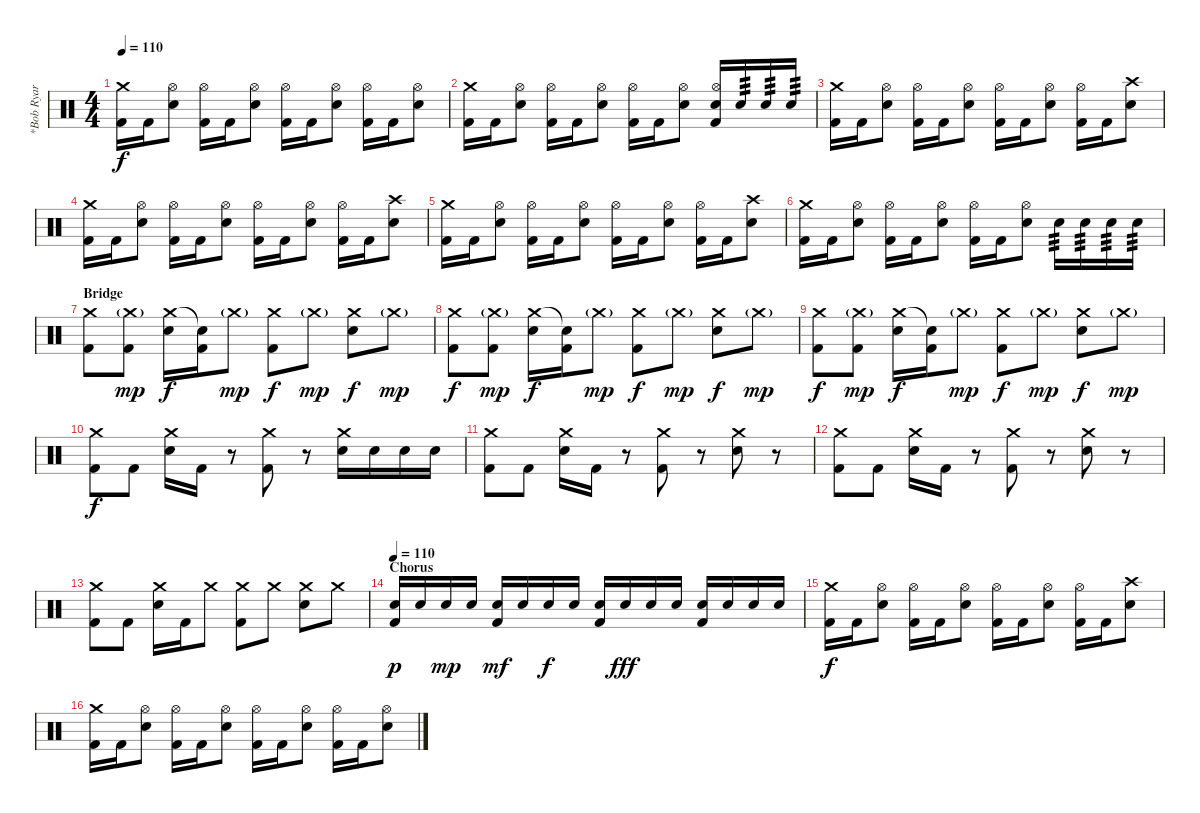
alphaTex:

\track ("*Bob Ryar (Drums)" "*Bob Ryar ") {instrument percussion}
\staff {score}
\articulation defaults
\ts (4 4)
\tempo 110
\clef neutral
\ks c
("Crash medium (hit)" "Kick (hit) 2").16{dy f} "Kick (hit) 2".16 ("Hi-Hat (open)" "Electric Snare (hit)").8 ("Hi-Hat (open)" "Kick (hit) 2").16 "Kick (hit) 2".16 ("Hi-Hat (open)" "Electric Snare (hit)").8 ("Hi-Hat (open)" "Kick (hit) 2").16 "Kick (hit) 2".16 ("Hi-Hat (open)" "Electric Snare (hit)").8 ("Hi-Hat (open)" "Kick (hit) 2").16 "Kick (hit) 2".16 ("Hi-Hat (open)" "Electric Snare (hit)").8 |
("Crash medium (hit)" "Kick (hit) 2").16 "Kick (hit) 2".16 ("Hi-Hat (open)" "Electric Snare (hit)").8 ("Hi-Hat (open)" "Kick (hit) 2").16 "Kick (hit) 2".16 ("Hi-Hat (open)" "Electric Snare (hit)").8 ("Hi-Hat (open)" "Kick (hit) 2").16 "Kick (hit) 2".16 ("Hi-Hat (open)" "Electric Snare (hit)").8 ("Hi-Hat (open)" "Electric Snare (hit)" "Kick (hit) 2").16 "Electric Snare (hit)".16{tp 3} "Electric Snare (hit)".16{tp 3} "Electric Snare (hit)".16{tp 3} |
("Crash medium (hit)" "Kick (hit) 2").16 "Kick (hit) 2".16 ("Hi-Hat (open)" "Electric Snare (hit)").8 ("Hi-Hat (open)" "Kick (hit) 2").16 "Kick (hit) 2".16 ("Hi-Hat (open)" "Electric Snare (hit)").8 ("Hi-Hat (open)" "Kick (hit) 2").16 "Kick (hit) 2".16 ("Hi-Hat (open)" "Electric Snare (hit)").8 ("Hi-Hat (open)" "Kick (hit) 2").16 "Kick (hit) 2".16 ("Crash high (hit)" "Electric Snare (hit)").8 |
("Crash medium (hit)" "Kick (hit) 2").16 "Kick (hit) 2".16 ("Hi-Hat (open)" "Electric Snare (hit)").8 ("Hi-Hat (open)" "Kick (hit) 2").16 "Kick (hit) 2".16 ("Hi-Hat (open)" "Electric Snare (hit)").8 ("Hi-Hat (open)" "Kick (hit) 2").16 "Kick (hit) 2".16 ("Hi-Hat (open)" "Electric Snare (hit)").8 ("Hi-Hat (open)" "Kick (hit) 2").16 "Kick (hit) 2".16 ("Crash high (hit)" "Electric Snare (hit)").8 |
("Crash medium (hit)" "Kick (hit) 2").16 "Kick (hit) 2".16 ("Hi-Hat (open)" "Electric Snare (hit)").8 ("Hi-Hat (open)" "Kick (hit) 2").16 "Kick (hit) 2".16 ("Hi-Hat (open)" "Electric Snare (hit)").8 ("Hi-Hat (open)" "Kick (hit) 2").16 "Kick (hit) 2".16 ("Hi-Hat (open)" "Electric Snare (hit)").8 ("Hi-Hat (open)" "Kick (hit) 2").16 "Kick (hit) 2".16 ("Crash high (hit)" "Electric Snare (hit)").8 |
("Crash medium (hit)" "Kick (hit) 2").16 "Kick (hit) 2".16 ("Hi-Hat (open)" "Electric Snare (hit)").8 ("Hi-Hat (open)" "Kick (hit) 2").16 "Kick (hit) 2".16 ("Hi-Hat (open)" "Electric Snare (hit)").8 ("Hi-Hat (open)" "Kick (hit) 2").16 "Kick (hit) 2".16 ("Hi-Hat (open)" "Electric Snare (hit)").8 "Electric Snare (hit)".16{tp 3} "Electric Snare (hit)".16{tp 3} "Electric Snare (hit)".16{tp 3} "Electric Snare (hit)".16{tp 3} |
\section ("" "Bridge")
("Crash medium (hit)" "Kick (hit) 2").8 ("Crash medium (hit)"{g} "Kick (hit) 2").8{dy mp} ("Crash medium (hit)" "Electric Snare (hit)").16{dy f} ("Snare (hit)"{t} "Kick (hit) 2").16 "Crash medium (hit)"{g}.8{dy mp} ("Crash medium (hit)" "Kick (hit) 2").8{dy f} "Crash medium (hit)"{g}.8{dy mp} ("Crash medium (hit)" "Electric Snare (hit)").8{dy f} "Crash medium (hit)"{g}.8{dy mp} |
("Crash medium (hit)" "Kick (hit) 2").8{dy f} ("Crash medium (hit)"{g} "Kick (hit) 2").8{dy mp} ("Crash medium (hit)" "Electric Snare (hit)").16{dy f} ("Snare (hit)"{t} "Kick (hit) 2").16 "Crash medium (hit)"{g}.8{dy mp} ("Crash medium (hit)" "Kick (hit) 2").8{dy f} "Crash medium (hit)"{g}.8{dy mp} ("Crash medium (hit)" "Electric Snare (hit)").8{dy f} "Crash medium (hit)"{g}.8{dy mp} |
("Crash medium (hit)" "Kick (hit) 2").8{dy f} ("Crash medium (hit)"{g} "Kick (hit) 2").8{dy mp} ("Crash medium (hit)" "Electric Snare (hit)").16{dy f} ("Snare (hit)"{t} "Kick (hit) 2").16 "Crash medium (hit)"{g}.8{dy mp} ("Crash medium (hit)" "Kick (hit) 2").8{dy f} "Crash medium (hit)"{g}.8{dy mp} ("Crash medium (hit)" "Electric Snare (hit)").8{dy f} "Crash medium (hit)"{g}.8{dy mp} |
("Crash medium (hit)" "Kick (hit) 2").8{dy f} "Kick (hit) 2".8 ("Crash medium (hit)" "Electric Snare (hit)").16 "Kick (hit) 2".16 r.8 ("Crash medium (hit)" "Kick (hit) 2").8 r.8 ("Crash medium (hit)" "Electric Snare (hit)").16 "Electric Snare (hit)".16 "Electric Snare (hit)".16 "Electric Snare (hit)".16 |
("Crash medium (hit)" "Kick (hit) 2").8 "Kick (hit) 2".8 ("Crash medium (hit)" "Electric Snare (hit)").16 "Kick (hit) 2".16 r.8 ("Crash medium (hit)" "Kick (hit) 2").8 r.8 ("Crash medium (hit)" "Electric Snare (hit)").8 r.8 |
("Crash medium (hit)" "Kick (hit) 2").8 "Kick (hit) 2".8 ("Crash medium (hit)" "Electric Snare (hit)").16 "Kick (hit) 2".16 r.8 ("Crash medium (hit)" "Kick (hit) 2").8 r.8 ("Crash medium (hit)" "Electric Snare (hit)").8 r.8 |
("Crash medium (hit)" "Kick (hit) 2").8 "Kick (hit) 2".8 ("Crash medium (hit)" "Electric Snare (hit)").16 "Kick (hit) 2".16 "Crash medium (hit)".8 ("Crash medium (hit)" "Kick (hit) 2").8 "Crash medium (hit)".8 ("Crash medium (hit)" "Electric Snare (hit)").8 "Crash medium (hit)".8 |
\section ("" "Chorus")
\tempo 110
("Electric Snare (hit)" "Kick (hit) 2").16{dy p} "Electric Snare (hit)".16 "Electric Snare (hit)".16{dy mp} "Electric Snare (hit)".16 ("Electric Snare (hit)" "Kick (hit) 2").16{dy mf} "Electric Snare (hit)".16 "Electric Snare (hit)".16{dy f} "Electric Snare (hit)".16 ("Electric Snare (hit)" "Kick (hit) 2").16 "Electric Snare (hit)".16{dy fff} "Electric Snare (hit)".16 "Electric Snare (hit)".16 ("Electric Snare (hit)" "Kick (hit) 2").16 "Electric Snare (hit)".16 "Electric Snare (hit)".16 "Electric Snare (hit)".16 |
("Crash medium (hit)" "Kick (hit) 2").16{dy f} "Kick (hit) 2".16 ("Hi-Hat (open)" "Electric Snare (hit)").8 ("Hi-Hat (open)" "Kick (hit) 2").16 "Kick (hit) 2".16 ("Hi-Hat (open)" "Electric Snare (hit)").8 ("Hi-Hat (open)" "Kick (hit) 2").16 "Kick (hit) 2".16 ("Hi-Hat (open)" "Electric Snare (hit)").8 ("Hi-Hat (open)" "Kick (hit) 2").16 "Kick (hit) 2".16 ("Crash high (hit)" "Electric Snare (hit)").8 |
("Crash medium (hit)" "Kick (hit) 2").16 "Kick (hit) 2".16 ("Hi-Hat (open)" "Electric Snare (hit)").8 ("Hi-Hat (open)" "Kick (hit) 2").16 "Kick (hit) 2".16 ("Hi-Hat (open)" "Electric Snare (hit)").8 ("Hi-Hat (open)" "Kick (hit) 2").16 "Kick (hit) 2".16 ("Hi-Hat (open)" "Electric Snare (hit)").8 ("Hi-Hat (open)" "Kick (hit) 2").16 "Kick (hit) 2".16 ("Hi-Hat (open)" "Electric Snare (hit)").8
